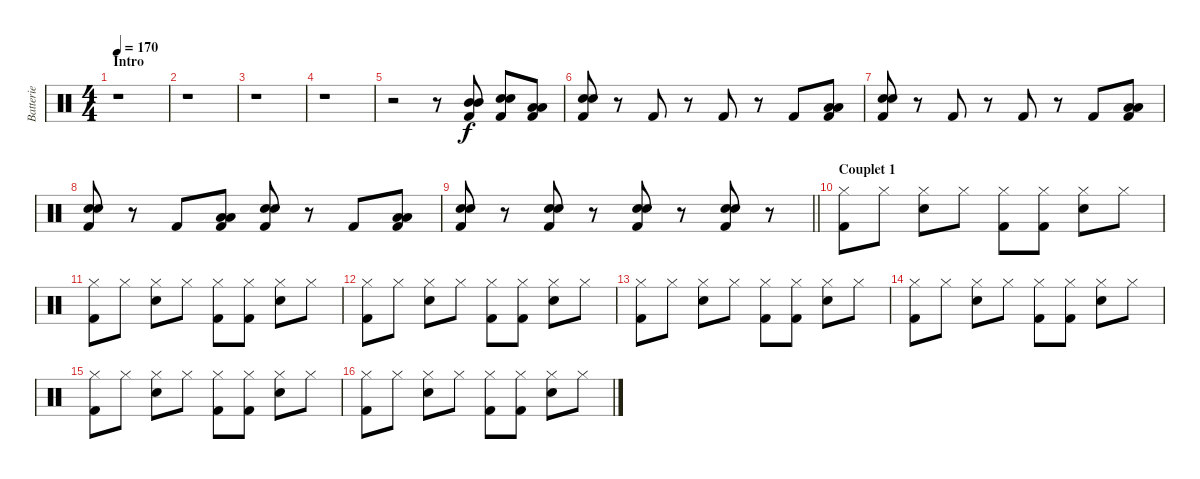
\track ("Batterie" "Batterie") {instrument percussion}
\staff {score}
\articulation defaults
\ts (4 4)
\section ("" "Intro")
\tempo 170
\clef neutral
\ks c
r.1{dy f} |
r.1 |
r.1 |
r.1 |
r.2 r.8 ("Kick (hit) 2" "Mid Tom (hit)" "Mid Tom (hit)").8 ("Kick (hit) 2" "Electric Snare (hit)" "Electric Snare (hit)").8 ("Kick (hit) 2" "Low Tom (hit)" "Low Tom (hit)").8 |
("Kick (hit) 2" "Snare (hit) 2" "Snare (hit) 2").8 r.8 "Kick (hit) 2".8 r.8 "Kick (hit) 2".8 r.8 "Kick (hit) 2".8 ("Kick (hit) 2" "Low Tom (hit)" "Low Tom (hit)").8 |
("Kick (hit) 2" "Snare (hit) 2" "Snare (hit) 2").8 r.8 "Kick (hit) 2".8 r.8 "Kick (hit) 2".8 r.8 "Kick (hit) 2".8 ("Kick (hit) 2" "Low Tom (hit)" "Low Tom (hit)").8 |
("Kick (hit) 2" "Snare (hit) 2" "Snare (hit) 2").8 r.8 "Kick (hit) 2".8 ("Kick (hit) 2" "Low Tom (hit)" "Low Tom (hit)").8 ("Kick (hit) 2" "Snare (hit) 2" "Snare (hit) 2").8 r.8 "Kick (hit) 2".8 ("Kick (hit) 2" "Low Tom (hit)" "Low Tom (hit)").8 |
\barLineRight lightlight
("Kick (hit) 2" "Snare (hit) 2" "Snare (hit) 2").8 r.8 ("Kick (hit) 2" "Snare (hit) 2" "Snare (hit) 2").8 r.8 ("Kick (hit) 2" "Snare (hit) 2" "Snare (hit) 2").8 r.8 ("Kick (hit) 2" "Snare (hit) 2" "Snare (hit) 2").8 r.8 |
\section ("" "Couplet 1")
("Kick (hit) 2" "Hi-Hat (closed)").8 "Hi-Hat (closed)".8 ("Snare (hit) 2" "Hi-Hat (closed)").8 "Hi-Hat (closed)".8 ("Kick (hit) 2" "Hi-Hat (closed)").8 ("Kick (hit) 2" "Hi-Hat (closed)").8 ("Snare (hit) 2" "Hi-Hat (closed)").8 "Hi-Hat (closed)".8 |
("Kick (hit) 2" "Hi-Hat (closed)").8 "Hi-Hat (closed)".8 ("Snare (hit) 2" "Hi-Hat (closed)").8 "Hi-Hat (closed)".8 ("Kick (hit) 2" "Hi-Hat (closed)").8 ("Kick (hit) 2" "Hi-Hat (closed)").8 ("Snare (hit) 2" "Hi-Hat (closed)").8 "Hi-Hat (closed)".8 |
("Kick (hit) 2" "Hi-Hat (closed)").8 "Hi-Hat (closed)".8 ("Snare (hit) 2" "Hi-Hat (closed)").8 "Hi-Hat (closed)".8 ("Kick (hit) 2" "Hi-Hat (closed)").8 ("Kick (hit) 2" "Hi-Hat (closed)").8 ("Snare (hit) 2" "Hi-Hat (closed)").8 "Hi-Hat (closed)".8 |
("Kick (hit) 2" "Hi-Hat (closed)").8 "Hi-Hat (closed)".8 ("Snare (hit) 2" "Hi-Hat (closed)").8 "Hi-Hat (closed)".8 ("Kick (hit) 2" "Hi-Hat (closed)").8 ("Kick (hit) 2" "Hi-Hat (closed)").8 ("Snare (hit) 2" "Hi-Hat (closed)").8 "Hi-Hat (closed)".8 |
("Kick (hit) 2" "Hi-Hat (closed)").8 "Hi-Hat (closed)".8 ("Snare (hit) 2" "Hi-Hat (closed)").8 "Hi-Hat (closed)".8 ("Kick (hit) 2" "Hi-Hat (closed)").8 ("Kick (hit) 2" "Hi-Hat (closed)").8 ("Snare (hit) 2" "Hi-Hat (closed)").8 "Hi-Hat (closed)".8 |
("Kick (hit) 2" "Hi-Hat (closed)").8 "Hi-Hat (closed)".8 ("Snare (hit) 2" "Hi-Hat (closed)").8 "Hi-Hat (closed)".8 ("Kick (hit) 2" "Hi-Hat (closed)").8 ("Kick (hit) 2" "Hi-Hat (closed)").8 ("Snare (hit) 2" "Hi-Hat (closed)").8 "Hi-Hat (closed)".8 |
("Kick (hit) 2" "Hi-Hat (closed)").8 "Hi-Hat (closed)".8 ("Snare (hit) 2" "Hi-Hat (closed)").8 "Hi-Hat (closed)".8 ("Kick (hit) 2" "Hi-Hat (closed)").8 ("Kick (hit) 2" "Hi-Hat (closed)").8 ("Snare (hit) 2" "Hi-Hat (closed)").8 "Hi-Hat (closed)".8
